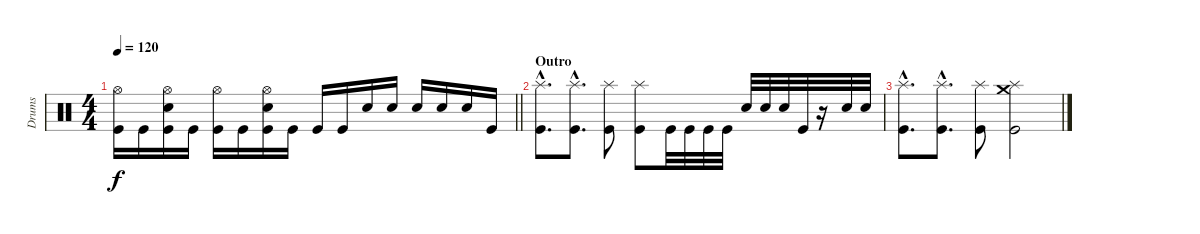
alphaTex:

\track ("Drums" "Drums") {instrument percussion}
\staff {score}
\articulation defaults
\ts (4 4)
\tempo 120
\clef neutral
\barLineRight lightlight
\ks c
("Hi-Hat (open)" "Kick (hit)").16{dy f} "Kick (hit)".16 ("Hi-Hat (open)" "Electric Snare (hit)" "Kick (hit)").16 "Kick (hit)".16 ("Hi-Hat (open)" "Kick (hit)").16 "Kick (hit)".16 ("Hi-Hat (open)" "Electric Snare (hit)" "Kick (hit)").16 "Kick (hit)".16 "Kick (hit)".16 "Kick (hit)".16 "Electric Snare (hit)".16 "Electric Snare (hit)".16 "Electric Snare (hit)".16 "Electric Snare (hit)".16 "Electric Snare (hit)".16 "Kick (hit)".16 |
\section ("" "Outro")
("Splash (hit)"{hac} "Kick (hit)"{hac}).8{d} ("Splash (hit)"{hac} "Kick (hit)"{hac}).8{d} ("Splash (hit)" "Kick (hit)").8 ("Splash (hit)" "Kick (hit)").8 "Kick (hit)".32 "Kick (hit)".32 "Kick (hit)".32 "Kick (hit)".32 "Electric Snare (hit)".32 "Electric Snare (hit)".32 "Electric Snare (hit)".32 "Kick (hit)".32 r.16 "Electric Snare (hit)".32 "Electric Snare (hit)".32 |
("Splash (hit)"{hac} "Kick (hit)"{hac}).8{d} ("Splash (hit)"{hac} "Kick (hit)"{hac}).8{d} ("Splash (hit)" "Kick (hit)").8 ("Crash medium (hit)" "Splash (hit)" "Kick (hit)").2
